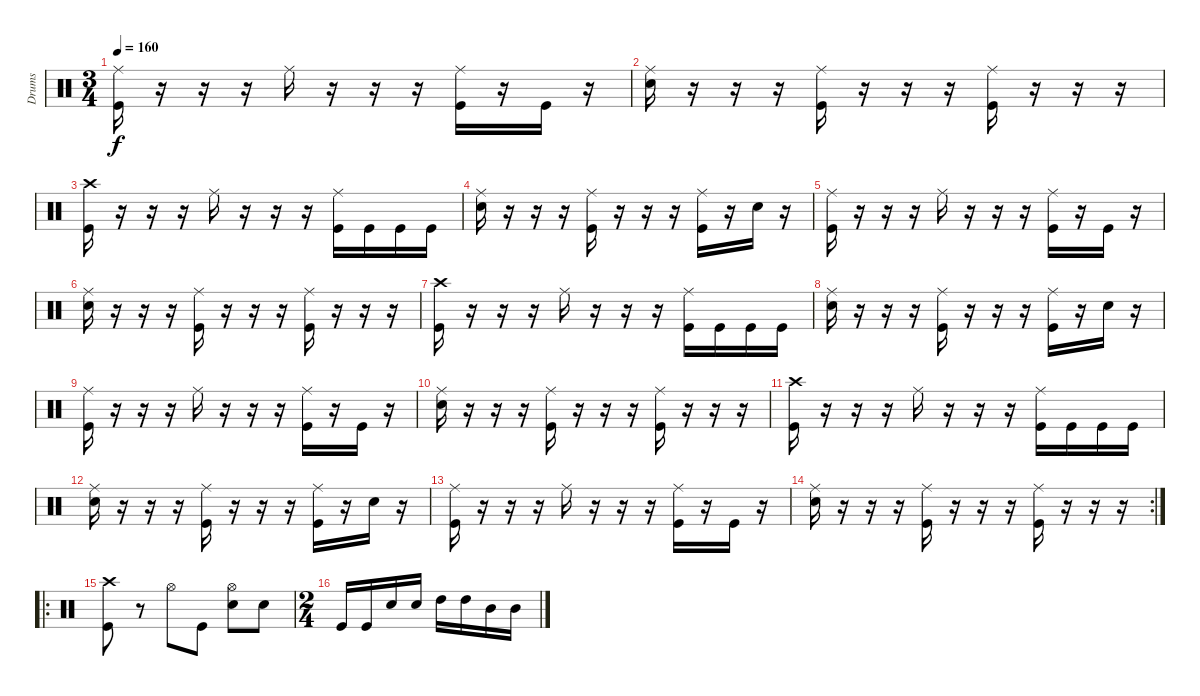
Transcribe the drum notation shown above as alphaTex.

\track ("Drums" "Drums") {instrument percussion}
\staff {score}
\articulation defaults
\ts (3 4)
\tempo 160
\clef neutral
\ks c
("Ride (middle)" "Kick (hit)").16{dy f} r.16 r.16 r.16 "Ride (middle)".16 r.16 r.16 r.16 ("Ride (middle)" "Kick (hit)").16 r.16 "Kick (hit)".16 r.16 |
("Ride (middle)" "Snare (hit) 2").16 r.16 r.16 r.16 ("Ride (middle)" "Kick (hit)").16 r.16 r.16 r.16 ("Ride (middle)" "Kick (hit)").16 r.16 r.16 r.16 |
("Crash high (hit)" "Kick (hit)").16 r.16 r.16 r.16 "Ride (middle)".16 r.16 r.16 r.16 ("Ride (middle)" "Kick (hit)").16 "Kick (hit)".16 "Kick (hit)".16 "Kick (hit)".16 |
("Ride (middle)" "Snare (hit) 2").16 r.16 r.16 r.16 ("Ride (middle)" "Kick (hit)").16 r.16 r.16 r.16 ("Ride (middle)" "Kick (hit)").16 r.16 "Snare (hit) 2".16 r.16 |
("Ride (middle)" "Kick (hit)").16 r.16 r.16 r.16 "Ride (middle)".16 r.16 r.16 r.16 ("Ride (middle)" "Kick (hit)").16 r.16 "Kick (hit)".16 r.16 |
("Ride (middle)" "Snare (hit) 2").16 r.16 r.16 r.16 ("Ride (middle)" "Kick (hit)").16 r.16 r.16 r.16 ("Ride (middle)" "Kick (hit)").16 r.16 r.16 r.16 |
("Crash high (hit)" "Kick (hit)").16 r.16 r.16 r.16 "Ride (middle)".16 r.16 r.16 r.16 ("Ride (middle)" "Kick (hit)").16 "Kick (hit)".16 "Kick (hit)".16 "Kick (hit)".16 |
("Ride (middle)" "Snare (hit) 2").16 r.16 r.16 r.16 ("Ride (middle)" "Kick (hit)").16 r.16 r.16 r.16 ("Ride (middle)" "Kick (hit)").16 r.16 "Snare (hit) 2".16 r.16 |
("Ride (middle)" "Kick (hit)").16 r.16 r.16 r.16 "Ride (middle)".16 r.16 r.16 r.16 ("Ride (middle)" "Kick (hit)").16 r.16 "Kick (hit)".16 r.16 |
("Ride (middle)" "Snare (hit) 2").16 r.16 r.16 r.16 ("Ride (middle)" "Kick (hit)").16 r.16 r.16 r.16 ("Ride (middle)" "Kick (hit)").16 r.16 r.16 r.16 |
("Crash high (hit)" "Kick (hit)").16 r.16 r.16 r.16 "Ride (middle)".16 r.16 r.16 r.16 ("Ride (middle)" "Kick (hit)").16 "Kick (hit)".16 "Kick (hit)".16 "Kick (hit)".16 |
("Ride (middle)" "Snare (hit) 2").16 r.16 r.16 r.16 ("Ride (middle)" "Kick (hit)").16 r.16 r.16 r.16 ("Ride (middle)" "Kick (hit)").16 r.16 "Snare (hit) 2".16 r.16 |
("Ride (middle)" "Kick (hit)").16 r.16 r.16 r.16 "Ride (middle)".16 r.16 r.16 r.16 ("Ride (middle)" "Kick (hit)").16 r.16 "Kick (hit)".16 r.16 |
\rc 2
("Ride (middle)" "Snare (hit) 2").16 r.16 r.16 r.16 ("Ride (middle)" "Kick (hit)").16 r.16 r.16 r.16 ("Ride (middle)" "Kick (hit)").16 r.16 r.16 r.16 |
\ro
("Crash high (hit)" "Kick (hit)").8 r.8 "Hi-Hat (open)".8 "Kick (hit)".8 ("Hi-Hat (open)" "Snare (hit) 2").8 "Snare (hit) 2".8 |
\ts (2 4)
"Kick (hit)".16 "Kick (hit)".16 "Snare (hit) 2".16 "Snare (hit) 2".16 "High Tom (hit)".16 "High Tom (hit)".16 "Mid Tom (hit)".16 "Mid Tom (hit)".16
